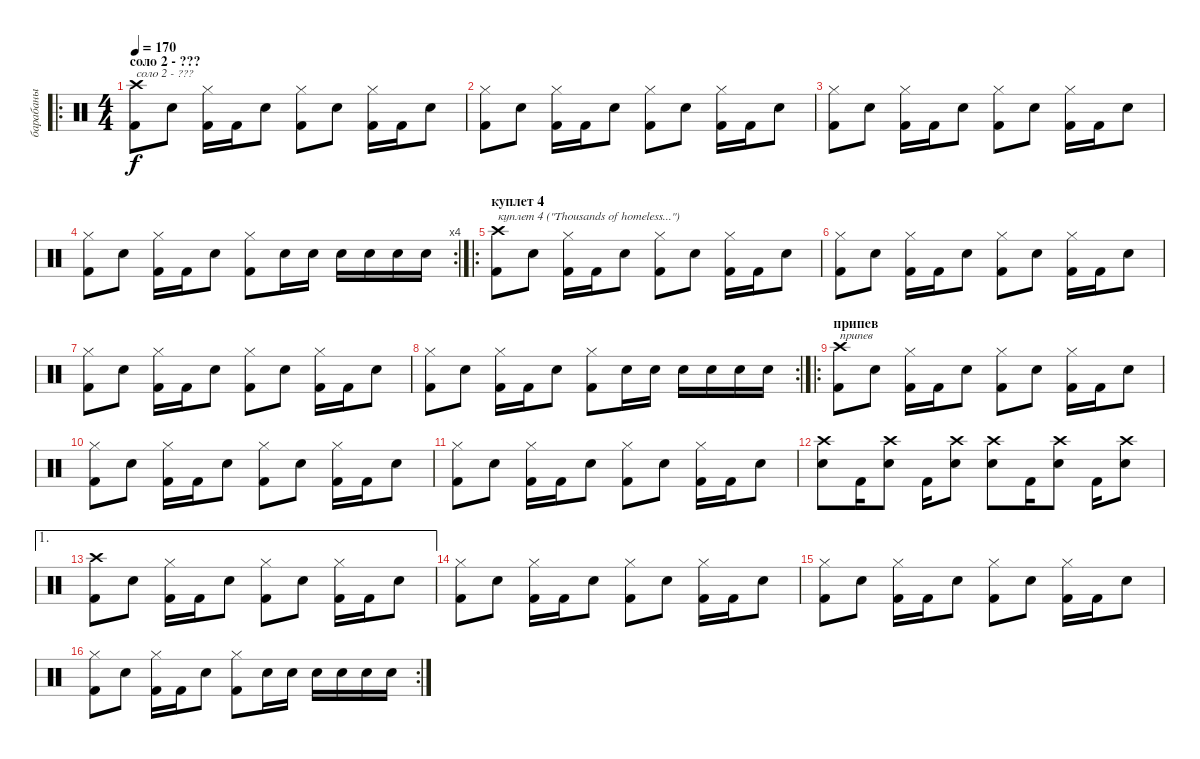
\track ("барабаны" "барабаны") {instrument percussion}
\staff {score}
\articulation defaults
\ro
\ts (4 4)
\section ("" "соло 2 - ???")
\tempo 170
\clef neutral
\ks c
("Crash high (hit)" "Kick (hit) 2").8{txt "соло 2 - ???" dy f} "Snare (hit) 2".8 ("Hi-Hat (closed)" "Kick (hit) 2").16 "Kick (hit) 2".16 "Snare (hit) 2".8 ("Hi-Hat (closed)" "Kick (hit) 2").8 "Snare (hit) 2".8 ("Hi-Hat (closed)" "Kick (hit) 2").16 "Kick (hit) 2".16 "Snare (hit) 2".8 |
("Hi-Hat (closed)" "Kick (hit) 2").8 "Snare (hit) 2".8 ("Hi-Hat (closed)" "Kick (hit) 2").16 "Kick (hit) 2".16 "Snare (hit) 2".8 ("Hi-Hat (closed)" "Kick (hit) 2").8 "Snare (hit) 2".8 ("Hi-Hat (closed)" "Kick (hit) 2").16 "Kick (hit) 2".16 "Snare (hit) 2".8 |
("Hi-Hat (closed)" "Kick (hit) 2").8 "Snare (hit) 2".8 ("Hi-Hat (closed)" "Kick (hit) 2").16 "Kick (hit) 2".16 "Snare (hit) 2".8 ("Hi-Hat (closed)" "Kick (hit) 2").8 "Snare (hit) 2".8 ("Hi-Hat (closed)" "Kick (hit) 2").16 "Kick (hit) 2".16 "Snare (hit) 2".8 |
\rc 4
("Hi-Hat (closed)" "Kick (hit) 2").8 "Snare (hit) 2".8 ("Hi-Hat (closed)" "Kick (hit) 2").16 "Kick (hit) 2".16 "Snare (hit) 2".8 ("Hi-Hat (closed)" "Kick (hit) 2").8 "Snare (hit) 2".16 "Snare (hit) 2".16 "Snare (hit) 2".16 "Snare (hit) 2".16 "Snare (hit) 2".16 "Snare (hit) 2".16 |
\ro
\section ("" "куплет 4")
("Crash high (hit)" "Kick (hit) 2").8{txt "куплет 4 (\"Thousands of homeless...\")"} "Snare (hit) 2".8 ("Hi-Hat (closed)" "Kick (hit) 2").16 "Kick (hit) 2".16 "Snare (hit) 2".8 ("Hi-Hat (closed)" "Kick (hit) 2").8 "Snare (hit) 2".8 ("Hi-Hat (closed)" "Kick (hit) 2").16 "Kick (hit) 2".16 "Snare (hit) 2".8 |
("Hi-Hat (closed)" "Kick (hit) 2").8 "Snare (hit) 2".8 ("Hi-Hat (closed)" "Kick (hit) 2").16 "Kick (hit) 2".16 "Snare (hit) 2".8 ("Hi-Hat (closed)" "Kick (hit) 2").8 "Snare (hit) 2".8 ("Hi-Hat (closed)" "Kick (hit) 2").16 "Kick (hit) 2".16 "Snare (hit) 2".8 |
("Hi-Hat (closed)" "Kick (hit) 2").8 "Snare (hit) 2".8 ("Hi-Hat (closed)" "Kick (hit) 2").16 "Kick (hit) 2".16 "Snare (hit) 2".8 ("Hi-Hat (closed)" "Kick (hit) 2").8 "Snare (hit) 2".8 ("Hi-Hat (closed)" "Kick (hit) 2").16 "Kick (hit) 2".16 "Snare (hit) 2".8 |
\rc 2
("Hi-Hat (closed)" "Kick (hit) 2").8 "Snare (hit) 2".8 ("Hi-Hat (closed)" "Kick (hit) 2").16 "Kick (hit) 2".16 "Snare (hit) 2".8 ("Hi-Hat (closed)" "Kick (hit) 2").8 "Snare (hit) 2".16 "Snare (hit) 2".16 "Snare (hit) 2".16 "Snare (hit) 2".16 "Snare (hit) 2".16 "Snare (hit) 2".16 |
\ro
\section ("" "припев")
("Crash high (hit)" "Kick (hit) 2").8{txt "припев"} "Snare (hit) 2".8 ("Hi-Hat (closed)" "Kick (hit) 2").16 "Kick (hit) 2".16 "Snare (hit) 2".8 ("Hi-Hat (closed)" "Kick (hit) 2").8 "Snare (hit) 2".8 ("Hi-Hat (closed)" "Kick (hit) 2").16 "Kick (hit) 2".16 "Snare (hit) 2".8 |
("Hi-Hat (closed)" "Kick (hit) 2").8 "Snare (hit) 2".8 ("Hi-Hat (closed)" "Kick (hit) 2").16 "Kick (hit) 2".16 "Snare (hit) 2".8 ("Hi-Hat (closed)" "Kick (hit) 2").8 "Snare (hit) 2".8 ("Hi-Hat (closed)" "Kick (hit) 2").16 "Kick (hit) 2".16 "Snare (hit) 2".8 |
("Hi-Hat (closed)" "Kick (hit) 2").8 "Snare (hit) 2".8 ("Hi-Hat (closed)" "Kick (hit) 2").16 "Kick (hit) 2".16 "Snare (hit) 2".8 ("Hi-Hat (closed)" "Kick (hit) 2").8 "Snare (hit) 2".8 ("Hi-Hat (closed)" "Kick (hit) 2").16 "Kick (hit) 2".16 "Snare (hit) 2".8 |
("Crash high (hit)" "Snare (hit) 2").8 "Kick (hit) 2".16 ("Crash high (hit)" "Snare (hit) 2").8 "Kick (hit) 2".16 ("Crash high (hit)" "Snare (hit) 2").8 ("Crash high (hit)" "Snare (hit) 2").8 "Kick (hit) 2".16 ("Crash high (hit)" "Snare (hit) 2").8 "Kick (hit) 2".16 ("Crash high (hit)" "Snare (hit) 2").8 |
\ae 1
("Crash high (hit)" "Kick (hit) 2").8 "Snare (hit) 2".8 ("Hi-Hat (closed)" "Kick (hit) 2").16 "Kick (hit) 2".16 "Snare (hit) 2".8 ("Hi-Hat (closed)" "Kick (hit) 2").8 "Snare (hit) 2".8 ("Hi-Hat (closed)" "Kick (hit) 2").16 "Kick (hit) 2".16 "Snare (hit) 2".8 |
("Hi-Hat (closed)" "Kick (hit) 2").8 "Snare (hit) 2".8 ("Hi-Hat (closed)" "Kick (hit) 2").16 "Kick (hit) 2".16 "Snare (hit) 2".8 ("Hi-Hat (closed)" "Kick (hit) 2").8 "Snare (hit) 2".8 ("Hi-Hat (closed)" "Kick (hit) 2").16 "Kick (hit) 2".16 "Snare (hit) 2".8 |
("Hi-Hat (closed)" "Kick (hit) 2").8 "Snare (hit) 2".8 ("Hi-Hat (closed)" "Kick (hit) 2").16 "Kick (hit) 2".16 "Snare (hit) 2".8 ("Hi-Hat (closed)" "Kick (hit) 2").8 "Snare (hit) 2".8 ("Hi-Hat (closed)" "Kick (hit) 2").16 "Kick (hit) 2".16 "Snare (hit) 2".8 |
\rc 2
("Hi-Hat (closed)" "Kick (hit) 2").8 "Snare (hit) 2".8 ("Hi-Hat (closed)" "Kick (hit) 2").16 "Kick (hit) 2".16 "Snare (hit) 2".8 ("Hi-Hat (closed)" "Kick (hit) 2").8 "Snare (hit) 2".16 "Snare (hit) 2".16 "Snare (hit) 2".16 "Snare (hit) 2".16 "Snare (hit) 2".16 "Snare (hit) 2".16
